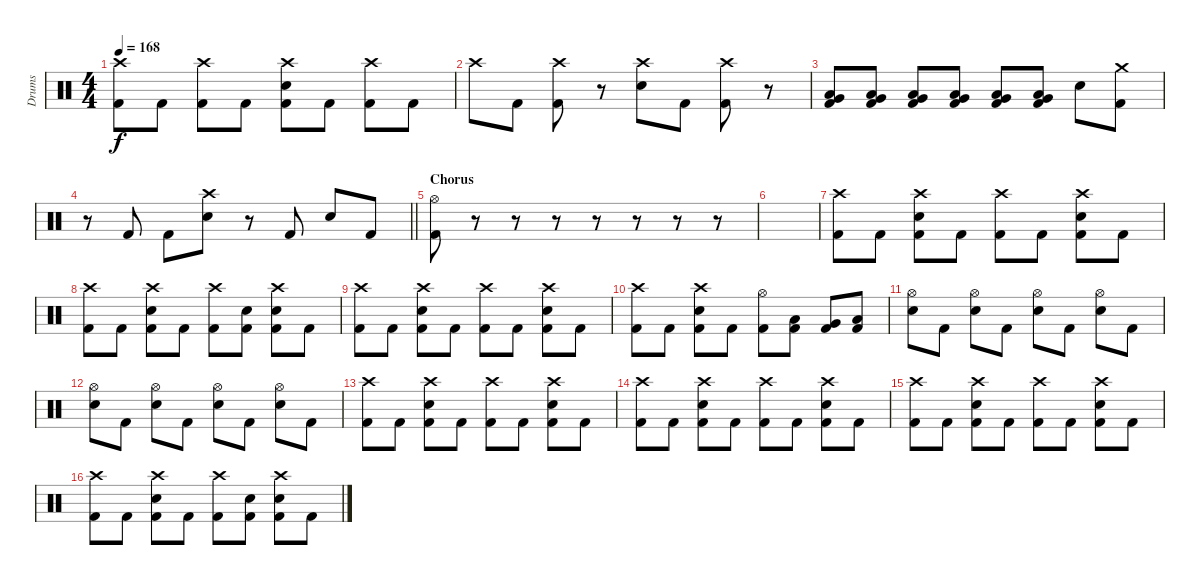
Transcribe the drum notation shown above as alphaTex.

\track ("Drums" "Drums") {instrument percussion}
\staff {score}
\articulation defaults
\ts (4 4)
\tempo 168
\clef neutral
\ks c
("Crash high (hit)" "Kick (hit) 2").8{dy f} "Kick (hit) 2".8 ("Crash high (hit)" "Kick (hit) 2").8 "Kick (hit) 2".8 ("Crash high (hit)" "Electric Snare (hit)" "Kick (hit) 2").8 "Kick (hit) 2".8 ("Crash high (hit)" "Kick (hit) 2").8 "Kick (hit) 2".8 |
"Crash high (hit)".8 "Kick (hit) 2".8 ("Crash high (hit)" "Kick (hit) 2").8 r.8 ("Crash high (hit)" "Electric Snare (hit)").8 "Kick (hit) 2".8 ("Crash high (hit)" "Kick (hit) 2").8 r.8 |
("Low Floor Tom (hit)" "Very Low Tom (hit)" "Kick (hit) 2").8 ("Low Floor Tom (hit)" "Very Low Tom (hit)" "Kick (hit) 2").8 ("Low Floor Tom (hit)" "Very Low Tom (hit)" "Kick (hit) 2").8 ("Low Floor Tom (hit)" "Very Low Tom (hit)" "Kick (hit) 2").8 ("Low Floor Tom (hit)" "Very Low Tom (hit)" "Kick (hit) 2").8 ("Low Floor Tom (hit)" "Very Low Tom (hit)" "Kick (hit) 2").8 "Electric Snare (hit)".8 ("Crash medium (hit)" "Kick (hit) 2").8 |
\barLineRight lightlight
r.8 "Kick (hit) 2".8 "Kick (hit) 2".8 ("Crash high (hit)" "Electric Snare (hit)").8 r.8 "Kick (hit) 2".8 "Electric Snare (hit)".8 "Kick (hit) 2".8 |
\section ("" "Chorus")
("Hi-Hat (open)" "Kick (hit) 2").8 r.8 r.8 r.8 r.8 r.8 r.8 r.8 |
|
("Crash high (hit)" "Kick (hit) 2").8 "Kick (hit) 2".8 ("Crash high (hit)" "Electric Snare (hit)" "Kick (hit) 2").8 "Kick (hit) 2".8 ("Crash high (hit)" "Kick (hit) 2").8 "Kick (hit) 2".8 ("Crash high (hit)" "Electric Snare (hit)" "Kick (hit) 2").8 "Kick (hit) 2".8 |
("Crash high (hit)" "Kick (hit) 2").8 "Kick (hit) 2".8 ("Crash high (hit)" "Electric Snare (hit)" "Kick (hit) 2").8 "Kick (hit) 2".8 ("Crash high (hit)" "Kick (hit) 2").8 ("Electric Snare (hit)" "Kick (hit) 2").8 ("Crash high (hit)" "Electric Snare (hit)" "Kick (hit) 2").8 "Kick (hit) 2".8 |
("Crash high (hit)" "Kick (hit) 2").8 "Kick (hit) 2".8 ("Crash high (hit)" "Electric Snare (hit)" "Kick (hit) 2").8 "Kick (hit) 2".8 ("Crash high (hit)" "Kick (hit) 2").8 "Kick (hit) 2".8 ("Crash high (hit)" "Electric Snare (hit)" "Kick (hit) 2").8 "Kick (hit) 2".8 |
("Crash high (hit)" "Kick (hit) 2").8 "Kick (hit) 2".8 ("Crash high (hit)" "Electric Snare (hit)" "Kick (hit) 2").8 "Kick (hit) 2".8 ("Hi-Hat (open)" "Kick (hit) 2").8 ("Low Tom (hit)" "Kick (hit) 2").8 ("Very Low Tom (hit)" "Kick (hit) 2").8 ("Low Floor Tom (hit)" "Kick (hit) 2").8 |
("Hi-Hat (open)" "Electric Snare (hit)").8 "Kick (hit) 2".8 ("Hi-Hat (open)" "Electric Snare (hit)").8 "Kick (hit) 2".8 ("Hi-Hat (open)" "Electric Snare (hit)").8 "Kick (hit) 2".8 ("Hi-Hat (open)" "Electric Snare (hit)").8 "Kick (hit) 2".8 |
("Hi-Hat (open)" "Electric Snare (hit)").8 "Kick (hit) 2".8 ("Hi-Hat (open)" "Electric Snare (hit)").8 "Kick (hit) 2".8 ("Hi-Hat (open)" "Electric Snare (hit)").8 "Kick (hit) 2".8 ("Hi-Hat (open)" "Electric Snare (hit)").8 "Kick (hit) 2".8 |
("Crash high (hit)" "Kick (hit) 2").8 "Kick (hit) 2".8 ("Crash high (hit)" "Electric Snare (hit)" "Kick (hit) 2").8 "Kick (hit) 2".8 ("Crash high (hit)" "Kick (hit) 2").8 "Kick (hit) 2".8 ("Crash high (hit)" "Electric Snare (hit)" "Kick (hit) 2").8 "Kick (hit) 2".8 |
("Crash high (hit)" "Kick (hit) 2").8 "Kick (hit) 2".8 ("Crash high (hit)" "Electric Snare (hit)" "Kick (hit) 2").8 "Kick (hit) 2".8 ("Crash high (hit)" "Kick (hit) 2").8 "Kick (hit) 2".8 ("Crash high (hit)" "Electric Snare (hit)" "Kick (hit) 2").8 "Kick (hit) 2".8 |
("Crash high (hit)" "Kick (hit) 2").8 "Kick (hit) 2".8 ("Crash high (hit)" "Electric Snare (hit)" "Kick (hit) 2").8 "Kick (hit) 2".8 ("Crash high (hit)" "Kick (hit) 2").8 "Kick (hit) 2".8 ("Crash high (hit)" "Electric Snare (hit)" "Kick (hit) 2").8 "Kick (hit) 2".8 |
("Crash high (hit)" "Kick (hit) 2").8 "Kick (hit) 2".8 ("Crash high (hit)" "Electric Snare (hit)" "Kick (hit) 2").8 "Kick (hit) 2".8 ("Crash high (hit)" "Kick (hit) 2").8 ("Electric Snare (hit)" "Kick (hit) 2").8 ("Crash high (hit)" "Electric Snare (hit)" "Kick (hit) 2").8 "Kick (hit) 2".8
